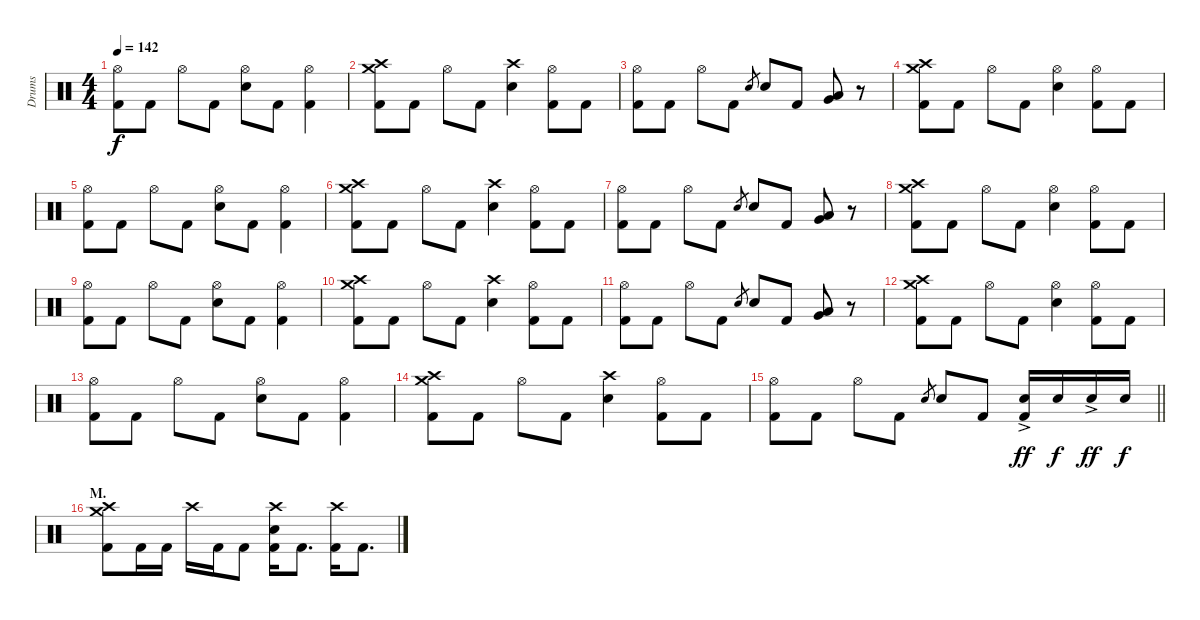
\track ("Drums" "Drums") {instrument percussion}
\staff {score}
\articulation defaults
\ts (4 4)
\tempo 142
\clef neutral
\ks c
("Hi-Hat (open)" "Kick (hit) 2").8{dy f} "Kick (hit) 2".8 "Hi-Hat (open)".8 "Kick (hit) 2".8 ("Hi-Hat (open)" "Electric Snare (hit)").8 "Kick (hit) 2".8 ("Hi-Hat (open)" "Kick (hit) 2").4 |
("Crash medium (hit)" "Crash high (hit)" "Kick (hit) 2").8 "Kick (hit) 2".8 "Hi-Hat (open)".8 "Kick (hit) 2".8 ("Crash high (hit)" "Electric Snare (hit)").4 ("Hi-Hat (open)" "Kick (hit) 2").8 "Kick (hit) 2".8 |
("Hi-Hat (open)" "Kick (hit) 2").8 "Kick (hit) 2".8 "Hi-Hat (open)".8 "Kick (hit) 2".8 "Electric Snare (hit)".8{gr} "Electric Snare (hit)".8 "Kick (hit) 2".8 ("Very Low Tom (hit)" "Low Floor Tom (hit)").8{bu 120} r.8 |
("Crash medium (hit)" "Crash high (hit)" "Kick (hit) 2").8 "Kick (hit) 2".8 "Hi-Hat (open)".8 "Kick (hit) 2".8 ("Hi-Hat (open)" "Electric Snare (hit)").4 ("Hi-Hat (open)" "Kick (hit) 2").8 "Kick (hit) 2".8 |
("Hi-Hat (open)" "Kick (hit) 2").8 "Kick (hit) 2".8 "Hi-Hat (open)".8 "Kick (hit) 2".8 ("Hi-Hat (open)" "Electric Snare (hit)").8 "Kick (hit) 2".8 ("Hi-Hat (open)" "Kick (hit) 2").4 |
("Crash medium (hit)" "Crash high (hit)" "Kick (hit) 2").8 "Kick (hit) 2".8 "Hi-Hat (open)".8 "Kick (hit) 2".8 ("Crash high (hit)" "Electric Snare (hit)").4 ("Hi-Hat (open)" "Kick (hit) 2").8 "Kick (hit) 2".8 |
("Hi-Hat (open)" "Kick (hit) 2").8 "Kick (hit) 2".8 "Hi-Hat (open)".8 "Kick (hit) 2".8 "Electric Snare (hit)".8{gr} "Electric Snare (hit)".8 "Kick (hit) 2".8 ("Very Low Tom (hit)" "Low Floor Tom (hit)").8{bu 120} r.8 |
("Crash medium (hit)" "Crash high (hit)" "Kick (hit) 2").8 "Kick (hit) 2".8 "Hi-Hat (open)".8 "Kick (hit) 2".8 ("Hi-Hat (open)" "Electric Snare (hit)").4 ("Hi-Hat (open)" "Kick (hit) 2").8 "Kick (hit) 2".8 |
("Hi-Hat (open)" "Kick (hit) 2").8 "Kick (hit) 2".8 "Hi-Hat (open)".8 "Kick (hit) 2".8 ("Hi-Hat (open)" "Electric Snare (hit)").8 "Kick (hit) 2".8 ("Hi-Hat (open)" "Kick (hit) 2").4 |
("Crash medium (hit)" "Crash high (hit)" "Kick (hit) 2").8 "Kick (hit) 2".8 "Hi-Hat (open)".8 "Kick (hit) 2".8 ("Crash high (hit)" "Electric Snare (hit)").4 ("Hi-Hat (open)" "Kick (hit) 2").8 "Kick (hit) 2".8 |
("Hi-Hat (open)" "Kick (hit) 2").8 "Kick (hit) 2".8 "Hi-Hat (open)".8 "Kick (hit) 2".8 "Electric Snare (hit)".8{gr} "Electric Snare (hit)".8 "Kick (hit) 2".8 ("Very Low Tom (hit)" "Low Floor Tom (hit)").8{bu 120} r.8 |
("Crash medium (hit)" "Crash high (hit)" "Kick (hit) 2").8 "Kick (hit) 2".8 "Hi-Hat (open)".8 "Kick (hit) 2".8 ("Hi-Hat (open)" "Electric Snare (hit)").4 ("Hi-Hat (open)" "Kick (hit) 2").8 "Kick (hit) 2".8 |
("Hi-Hat (open)" "Kick (hit) 2").8 "Kick (hit) 2".8 "Hi-Hat (open)".8 "Kick (hit) 2".8 ("Hi-Hat (open)" "Electric Snare (hit)").8 "Kick (hit) 2".8 ("Hi-Hat (open)" "Kick (hit) 2").4 |
("Crash medium (hit)" "Crash high (hit)" "Kick (hit) 2").8 "Kick (hit) 2".8 "Hi-Hat (open)".8 "Kick (hit) 2".8 ("Crash high (hit)" "Electric Snare (hit)").4 ("Hi-Hat (open)" "Kick (hit) 2").8 "Kick (hit) 2".8 |
\barLineRight lightlight
("Hi-Hat (open)" "Kick (hit) 2").8 "Kick (hit) 2".8 "Hi-Hat (open)".8 "Kick (hit) 2".8 "Electric Snare (hit)".8{gr} "Electric Snare (hit)".8 "Kick (hit) 2".8 ("Electric Snare (hit)"{ac} "Kick (hit) 2").16{dy ff} "Electric Snare (hit)".16{dy f} "Electric Snare (hit)"{ac}.16{dy ff} "Electric Snare (hit)".16{dy f} |
\section ("" "M.")
("Crash medium (hit)" "Crash high (hit)" "Kick (hit) 2").8 "Kick (hit) 2".16 "Kick (hit) 2".16 "Crash high (hit)".16 "Kick (hit) 2".16 "Kick (hit) 2".8 ("Crash high (hit)" "Electric Snare (hit)" "Kick (hit) 2").16 "Kick (hit) 2".8{d} ("Crash high (hit)" "Kick (hit) 2").16 "Kick (hit) 2".8{d}
